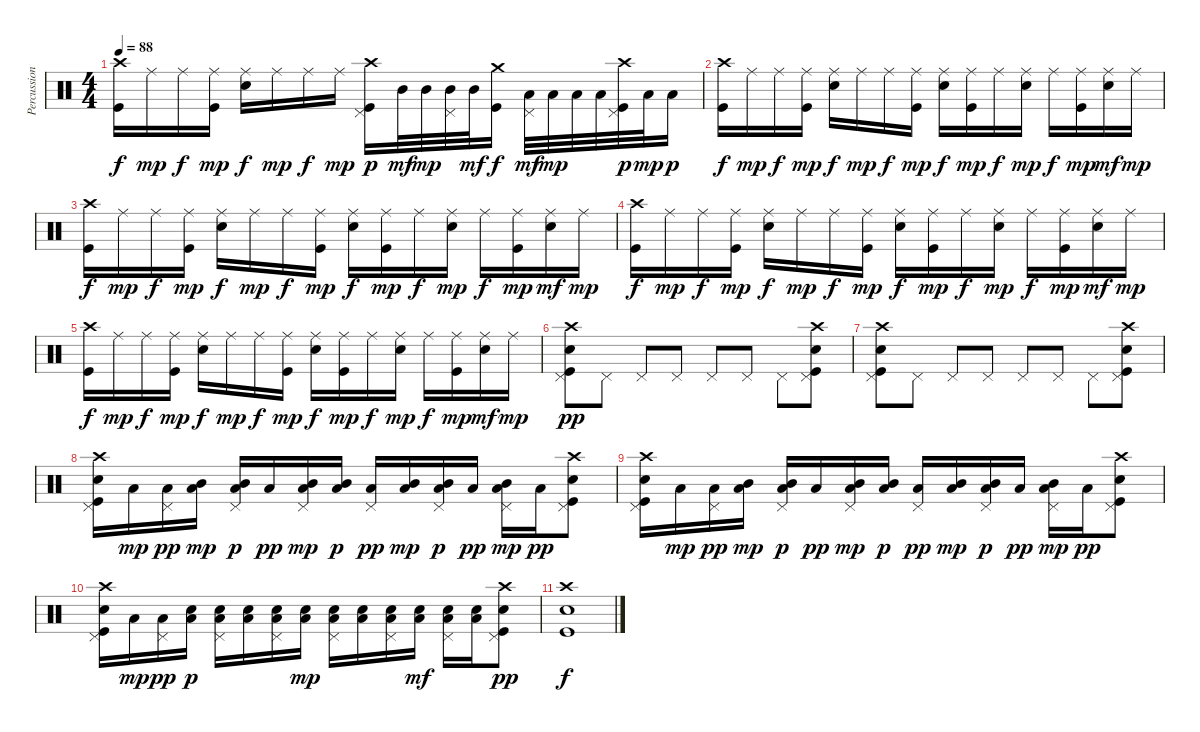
\track ("Percussion" "Percussion") {instrument percussion}
\staff {score}
\articulation defaults
\ts (4 4)
\tempo 88
\clef neutral
\ks c
("Crash high (hit)" "Kick (hit)").16{dy f} "Ride (middle)".16{dy mp} "Ride (middle)".16{dy f} ("Ride (middle)" "Kick (hit)").16{dy mp} ("Ride (middle)" "Snare (hit) 2").16{dy f} "Ride (middle)".16{dy mp} "Ride (middle)".16{dy f} "Ride (middle)".16{dy mp} ("Crash high (hit)" "Pedal Hi-Hat (hit)" "Kick (hit)").16{dy p} "Mid Tom (hit)".32{dy mf} "Mid Tom (hit)".32{dy mp} ("Pedal Hi-Hat (hit)" "Mid Tom (hit)").32 "Mid Tom (hit)".32{dy mf} ("Crash medium (hit)" "Kick (hit)").16{dy f} ("Pedal Hi-Hat (hit)" "Low Tom (hit)").32{dy mf} "Low Tom (hit)".32{dy mp} "Low Tom (hit)".32 "Low Tom (hit)".32 ("Crash high (hit)" "Pedal Hi-Hat (hit)" "Kick (hit)").32{dy p} "Low Tom (hit)".32{dy mp} "Low Tom (hit)".16{dy p} |
("Crash high (hit)" "Kick (hit)").16{dy f} "Ride (middle)".16{dy mp} "Ride (middle)".16{dy f} ("Ride (middle)" "Kick (hit)").16{dy mp} ("Ride (middle)" "Snare (hit) 2").16{dy f} "Ride (middle)".16{dy mp} "Ride (middle)".16{dy f} ("Ride (middle)" "Kick (hit)").16{dy mp} ("Ride (middle)" "Snare (hit) 2").16{dy f} ("Ride (middle)" "Kick (hit)").16{dy mp} "Ride (middle)".16{dy f} ("Ride (middle)" "Snare (hit) 2").16{dy mp} "Ride (middle)".16{dy f} ("Ride (middle)" "Kick (hit)").16{dy mp} ("Ride (middle)" "Snare (hit) 2").16{dy mf} "Ride (middle)".16{dy mp} |
("Crash high (hit)" "Kick (hit)").16{dy f} "Ride (middle)".16{dy mp} "Ride (middle)".16{dy f} ("Ride (middle)" "Kick (hit)").16{dy mp} ("Ride (middle)" "Snare (hit) 2").16{dy f} "Ride (middle)".16{dy mp} "Ride (middle)".16{dy f} ("Ride (middle)" "Kick (hit)").16{dy mp} ("Ride (middle)" "Snare (hit) 2").16{dy f} ("Ride (middle)" "Kick (hit)").16{dy mp} "Ride (middle)".16{dy f} ("Ride (middle)" "Snare (hit) 2").16{dy mp} "Ride (middle)".16{dy f} ("Ride (middle)" "Kick (hit)").16{dy mp} ("Ride (middle)" "Snare (hit) 2").16{dy mf} "Ride (middle)".16{dy mp} |
("Crash high (hit)" "Kick (hit)").16{dy f} "Ride (middle)".16{dy mp} "Ride (middle)".16{dy f} ("Ride (middle)" "Kick (hit)").16{dy mp} ("Ride (middle)" "Snare (hit) 2").16{dy f} "Ride (middle)".16{dy mp} "Ride (middle)".16{dy f} ("Ride (middle)" "Kick (hit)").16{dy mp} ("Ride (middle)" "Snare (hit) 2").16{dy f} ("Ride (middle)" "Kick (hit)").16{dy mp} "Ride (middle)".16{dy f} ("Ride (middle)" "Snare (hit) 2").16{dy mp} "Ride (middle)".16{dy f} ("Ride (middle)" "Kick (hit)").16{dy mp} ("Ride (middle)" "Snare (hit) 2").16{dy mf} "Ride (middle)".16{dy mp} |
("Crash high (hit)" "Kick (hit)").16{dy f} "Ride (middle)".16{dy mp} "Ride (middle)".16{dy f} ("Ride (middle)" "Kick (hit)").16{dy mp} ("Ride (middle)" "Snare (hit) 2").16{dy f} "Ride (middle)".16{dy mp} "Ride (middle)".16{dy f} ("Ride (middle)" "Kick (hit)").16{dy mp} ("Ride (middle)" "Snare (hit) 2").16{dy f} ("Ride (middle)" "Kick (hit)").16{dy mp} "Ride (middle)".16{dy f} ("Ride (middle)" "Snare (hit) 2").16{dy mp} "Ride (middle)".16{dy f} ("Ride (middle)" "Kick (hit)").16{dy mp} ("Ride (middle)" "Snare (hit) 2").16{dy mf} "Ride (middle)".16{dy mp} |
("Crash high (hit)" "Pedal Hi-Hat (hit)" "Snare (hit) 2" "Kick (hit)").8{dy pp} "Pedal Hi-Hat (hit)".8 "Pedal Hi-Hat (hit)".8 "Pedal Hi-Hat (hit)".8 "Pedal Hi-Hat (hit)".8 "Pedal Hi-Hat (hit)".8 "Pedal Hi-Hat (hit)".8 ("Crash high (hit)" "Pedal Hi-Hat (hit)" "Snare (hit) 2" "Kick (hit)").8 |
("Crash high (hit)" "Pedal Hi-Hat (hit)" "Snare (hit) 2" "Kick (hit)").8 "Pedal Hi-Hat (hit)".8 "Pedal Hi-Hat (hit)".8 "Pedal Hi-Hat (hit)".8 "Pedal Hi-Hat (hit)".8 "Pedal Hi-Hat (hit)".8 "Pedal Hi-Hat (hit)".8 ("Crash high (hit)" "Pedal Hi-Hat (hit)" "Snare (hit) 2" "Kick (hit)").8 |
("Crash high (hit)" "Pedal Hi-Hat (hit)" "Snare (hit) 2" "Kick (hit)").16 "Low Tom (hit)".16{dy mp} ("Pedal Hi-Hat (hit)" "Low Tom (hit)").16{dy pp} ("Low Tom (hit)" "Mid Tom (hit)").16{dy mp} ("Pedal Hi-Hat (hit)" "Low Tom (hit)" "Mid Tom (hit)").16{dy p} "Low Tom (hit)".16{dy pp} ("Pedal Hi-Hat (hit)" "Low Tom (hit)" "Mid Tom (hit)").16{dy mp} ("Low Tom (hit)" "Mid Tom (hit)").16{dy p} ("Pedal Hi-Hat (hit)" "Low Tom (hit)").16{dy pp} ("Low Tom (hit)" "Mid Tom (hit)").16{dy mp} ("Pedal Hi-Hat (hit)" "Low Tom (hit)" "Mid Tom (hit)").16{dy p} "Low Tom (hit)".16{dy pp} ("Pedal Hi-Hat (hit)" "Low Tom (hit)" "Mid Tom (hit)").16{dy mp} "Low Tom (hit)".16{dy pp} ("Crash high (hit)" "Pedal Hi-Hat (hit)" "Snare (hit) 2" "Kick (hit)").8 |
("Crash high (hit)" "Pedal Hi-Hat (hit)" "Snare (hit) 2" "Kick (hit)").16 "Low Tom (hit)".16{dy mp} ("Pedal Hi-Hat (hit)" "Low Tom (hit)").16{dy pp} ("Low Tom (hit)" "Mid Tom (hit)").16{dy mp} ("Pedal Hi-Hat (hit)" "Low Tom (hit)" "Mid Tom (hit)").16{dy p} "Low Tom (hit)".16{dy pp} ("Pedal Hi-Hat (hit)" "Low Tom (hit)" "Mid Tom (hit)").16{dy mp} ("Low Tom (hit)" "Mid Tom (hit)").16{dy p} ("Pedal Hi-Hat (hit)" "Low Tom (hit)").16{dy pp} ("Low Tom (hit)" "Mid Tom (hit)").16{dy mp} ("Pedal Hi-Hat (hit)" "Low Tom (hit)" "Mid Tom (hit)").16{dy p} "Low Tom (hit)".16{dy pp} ("Pedal Hi-Hat (hit)" "Low Tom (hit)" "Mid Tom (hit)").16{dy mp} "Low Tom (hit)".16{dy pp} ("Crash high (hit)" "Pedal Hi-Hat (hit)" "Snare (hit) 2" "Kick (hit)").8 |
("Crash high (hit)" "Pedal Hi-Hat (hit)" "Snare (hit) 2" "Kick (hit)").16 "Low Tom (hit)".16{dy mp} ("Pedal Hi-Hat (hit)" "Low Tom (hit)").16{dy pp} ("Low Tom (hit)" "Snare (hit) 2").16{dy p} ("Pedal Hi-Hat (hit)" "Low Tom (hit)" "Snare (hit) 2").16 ("Low Tom (hit)" "Snare (hit) 2").16 ("Pedal Hi-Hat (hit)" "Low Tom (hit)" "Snare (hit) 2").16 ("Low Tom (hit)" "Snare (hit) 2").16{dy mp} ("Pedal Hi-Hat (hit)" "Low Tom (hit)" "Snare (hit) 2").16 ("Low Tom (hit)" "Snare (hit) 2").16 ("Pedal Hi-Hat (hit)" "Low Tom (hit)" "Snare (hit) 2").16 ("Low Tom (hit)" "Snare (hit) 2").16{dy mf} ("Pedal Hi-Hat (hit)" "Low Tom (hit)" "Snare (hit) 2").16 ("Low Tom (hit)" "Snare (hit) 2").16 ("Crash high (hit)" "Pedal Hi-Hat (hit)" "Snare (hit) 2" "Kick (hit)").8{dy pp} |
("Crash high (hit)" "Snare (hit) 2" "Kick (hit)").1{dy f}
